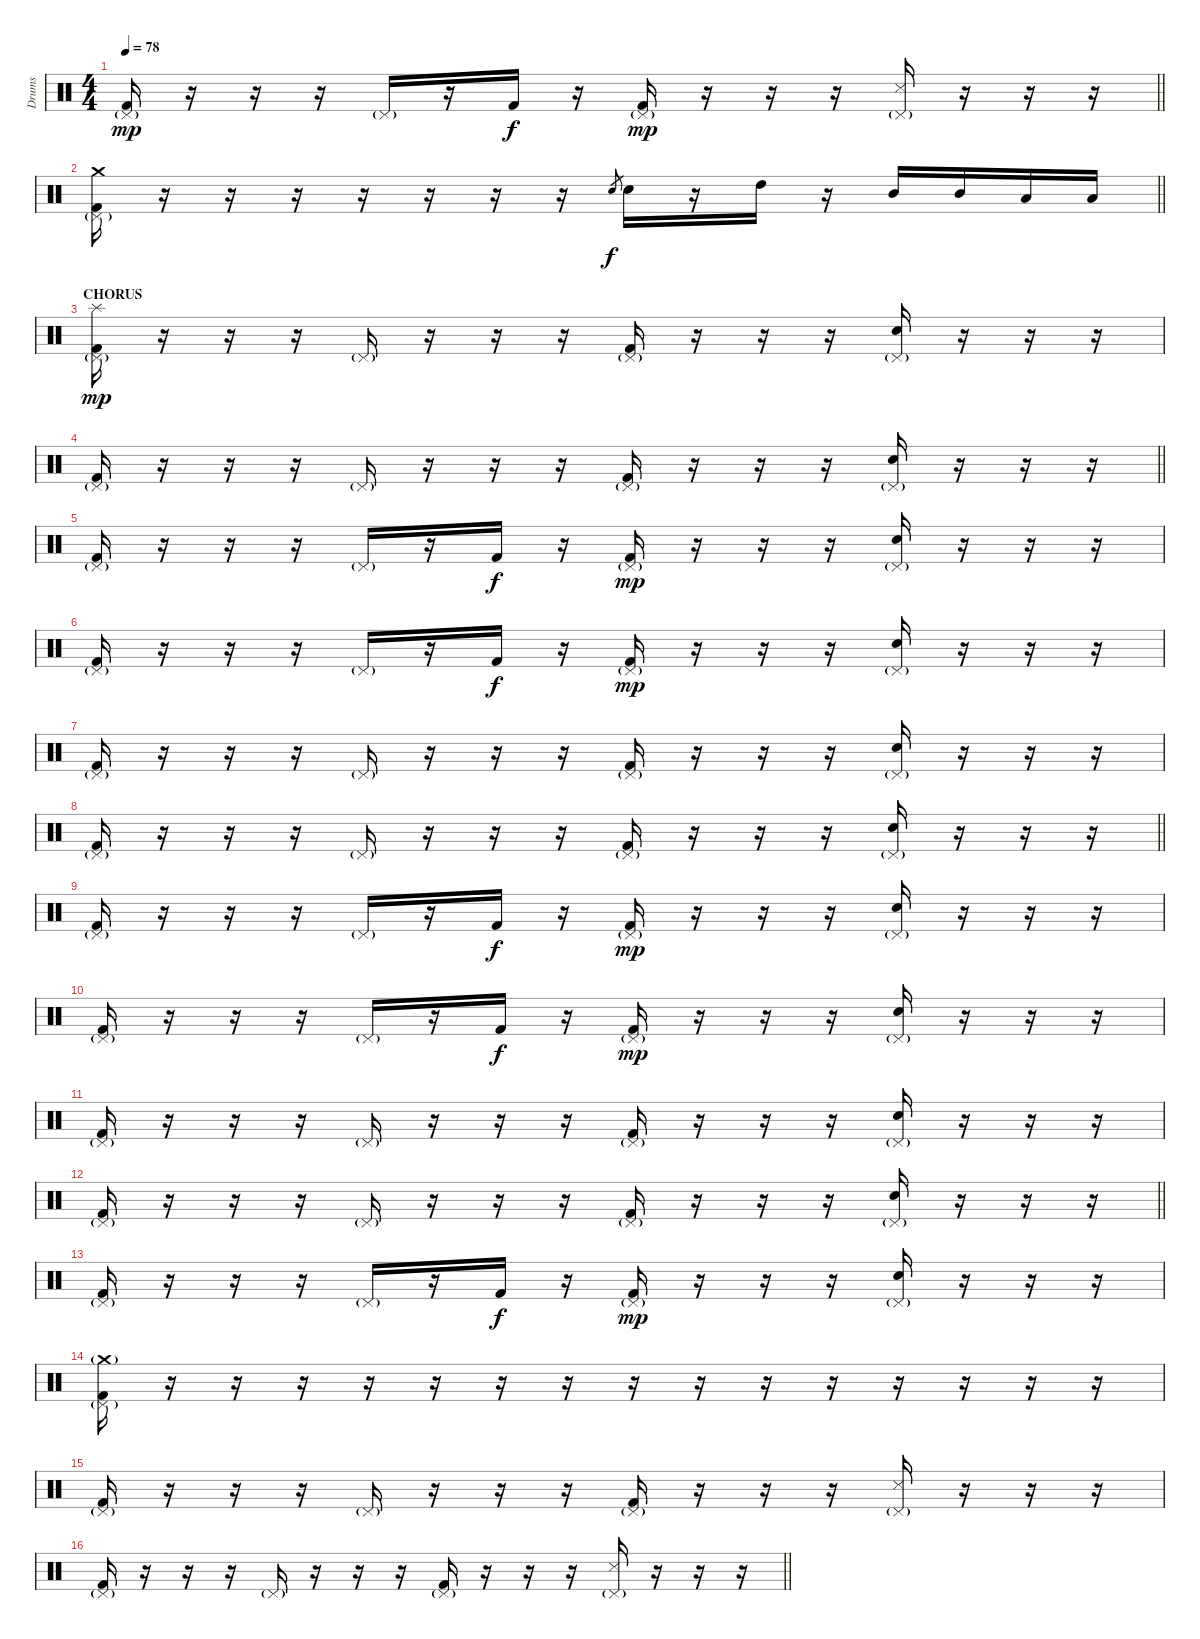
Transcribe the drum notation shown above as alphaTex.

\track ("Drums" "Drums") {instrument percussion}
\staff {score}
\articulation defaults
\ts (4 4)
\tempo 78
\clef neutral
\barLineRight lightlight
\ks c
("Pedal Hi-Hat (hit)"{g} "Kick (hit) 2").16{dy mp} r.16 r.16 r.16 "Pedal Hi-Hat (hit)"{g}.16 r.16 "Kick (hit) 2".16{dy f} r.16 ("Pedal Hi-Hat (hit)"{g} "Kick (hit) 2").16{dy mp} r.16 r.16 r.16 ("Pedal Hi-Hat (hit)"{g} "Snare (side stick) 3").16 r.16 r.16 r.16 |
\barLineRight lightlight
("Crash medium (hit)" "Pedal Hi-Hat (hit)"{g} "Kick (hit) 2").16 r.16 r.16 r.16 r.16 r.16 r.16 r.16 "Snare (hit) 2".8{gr dy f} "Snare (hit) 2".16 r.16 "High Tom (hit)".16 r.16 "Mid Tom (hit)".16 "Mid Tom (hit)".16 "Low Tom (hit)".16 "Low Tom (hit)".16 |
\section ("" "CHORUS")
("Splash (hit)" "Pedal Hi-Hat (hit)"{g} "Kick (hit) 2").16{dy mp} r.16 r.16 r.16 "Pedal Hi-Hat (hit)"{g}.16 r.16 r.16 r.16 ("Pedal Hi-Hat (hit)"{g} "Kick (hit) 2").16 r.16 r.16 r.16 ("Pedal Hi-Hat (hit)"{g} "Snare (hit) 2").16 r.16 r.16 r.16 |
\barLineRight lightlight
("Pedal Hi-Hat (hit)"{g} "Kick (hit) 2").16 r.16 r.16 r.16 "Pedal Hi-Hat (hit)"{g}.16 r.16 r.16 r.16 ("Pedal Hi-Hat (hit)"{g} "Kick (hit) 2").16 r.16 r.16 r.16 ("Pedal Hi-Hat (hit)"{g} "Snare (hit) 2").16 r.16 r.16 r.16 |
("Pedal Hi-Hat (hit)"{g} "Kick (hit) 2").16 r.16 r.16 r.16 "Pedal Hi-Hat (hit)"{g}.16 r.16 "Kick (hit) 2".16{dy f} r.16 ("Pedal Hi-Hat (hit)"{g} "Kick (hit) 2").16{dy mp} r.16 r.16 r.16 ("Pedal Hi-Hat (hit)"{g} "Snare (hit) 2").16 r.16 r.16 r.16 |
("Pedal Hi-Hat (hit)"{g} "Kick (hit) 2").16 r.16 r.16 r.16 "Pedal Hi-Hat (hit)"{g}.16 r.16 "Kick (hit) 2".16{dy f} r.16 ("Pedal Hi-Hat (hit)"{g} "Kick (hit) 2").16{dy mp} r.16 r.16 r.16 ("Pedal Hi-Hat (hit)"{g} "Snare (hit) 2").16 r.16 r.16 r.16 |
("Pedal Hi-Hat (hit)"{g} "Kick (hit) 2").16 r.16 r.16 r.16 "Pedal Hi-Hat (hit)"{g}.16 r.16 r.16 r.16 ("Pedal Hi-Hat (hit)"{g} "Kick (hit) 2").16 r.16 r.16 r.16 ("Pedal Hi-Hat (hit)"{g} "Snare (hit) 2").16 r.16 r.16 r.16 |
\barLineRight lightlight
("Pedal Hi-Hat (hit)"{g} "Kick (hit) 2").16 r.16 r.16 r.16 "Pedal Hi-Hat (hit)"{g}.16 r.16 r.16 r.16 ("Pedal Hi-Hat (hit)"{g} "Kick (hit) 2").16 r.16 r.16 r.16 ("Pedal Hi-Hat (hit)"{g} "Snare (hit) 2").16 r.16 r.16 r.16 |
("Pedal Hi-Hat (hit)"{g} "Kick (hit) 2").16 r.16 r.16 r.16 "Pedal Hi-Hat (hit)"{g}.16 r.16 "Kick (hit) 2".16{dy f} r.16 ("Pedal Hi-Hat (hit)"{g} "Kick (hit) 2").16{dy mp} r.16 r.16 r.16 ("Pedal Hi-Hat (hit)"{g} "Snare (hit) 2").16 r.16 r.16 r.16 |
("Pedal Hi-Hat (hit)"{g} "Kick (hit) 2").16 r.16 r.16 r.16 "Pedal Hi-Hat (hit)"{g}.16 r.16 "Kick (hit) 2".16{dy f} r.16 ("Pedal Hi-Hat (hit)"{g} "Kick (hit) 2").16{dy mp} r.16 r.16 r.16 ("Pedal Hi-Hat (hit)"{g} "Snare (hit) 2").16 r.16 r.16 r.16 |
("Pedal Hi-Hat (hit)"{g} "Kick (hit) 2").16 r.16 r.16 r.16 "Pedal Hi-Hat (hit)"{g}.16 r.16 r.16 r.16 ("Pedal Hi-Hat (hit)"{g} "Kick (hit) 2").16 r.16 r.16 r.16 ("Pedal Hi-Hat (hit)"{g} "Snare (hit) 2").16 r.16 r.16 r.16 |
\barLineRight lightlight
("Pedal Hi-Hat (hit)"{g} "Kick (hit) 2").16 r.16 r.16 r.16 "Pedal Hi-Hat (hit)"{g}.16 r.16 r.16 r.16 ("Pedal Hi-Hat (hit)"{g} "Kick (hit) 2").16 r.16 r.16 r.16 ("Pedal Hi-Hat (hit)"{g} "Snare (hit) 2").16 r.16 r.16 r.16 |
("Pedal Hi-Hat (hit)"{g} "Kick (hit) 2").16 r.16 r.16 r.16 "Pedal Hi-Hat (hit)"{g}.16 r.16 "Kick (hit) 2".16{dy f} r.16 ("Pedal Hi-Hat (hit)"{g} "Kick (hit) 2").16{dy mp} r.16 r.16 r.16 ("Pedal Hi-Hat (hit)"{g} "Snare (hit) 2").16 r.16 r.16 r.16 |
("Crash medium (hit)"{g} "Pedal Hi-Hat (hit)"{g} "Kick (hit) 2").16 r.16 r.16 r.16 r.16 r.16 r.16 r.16 r.16 r.16 r.16 r.16 r.16 r.16 r.16 r.16 |
("Pedal Hi-Hat (hit)"{g} "Kick (hit) 2").16 r.16 r.16 r.16 "Pedal Hi-Hat (hit)"{g}.16 r.16 r.16 r.16 ("Pedal Hi-Hat (hit)"{g} "Kick (hit) 2").16 r.16 r.16 r.16 ("Pedal Hi-Hat (hit)"{g} "Snare (side stick) 3").16 r.16 r.16 r.16 |
\barLineRight lightlight
("Pedal Hi-Hat (hit)"{g} "Kick (hit) 2").16 r.16 r.16 r.16 "Pedal Hi-Hat (hit)"{g}.16 r.16 r.16 r.16 ("Pedal Hi-Hat (hit)"{g} "Kick (hit) 2").16 r.16 r.16 r.16 ("Pedal Hi-Hat (hit)"{g} "Snare (side stick) 3").16 r.16 r.16 r.16
